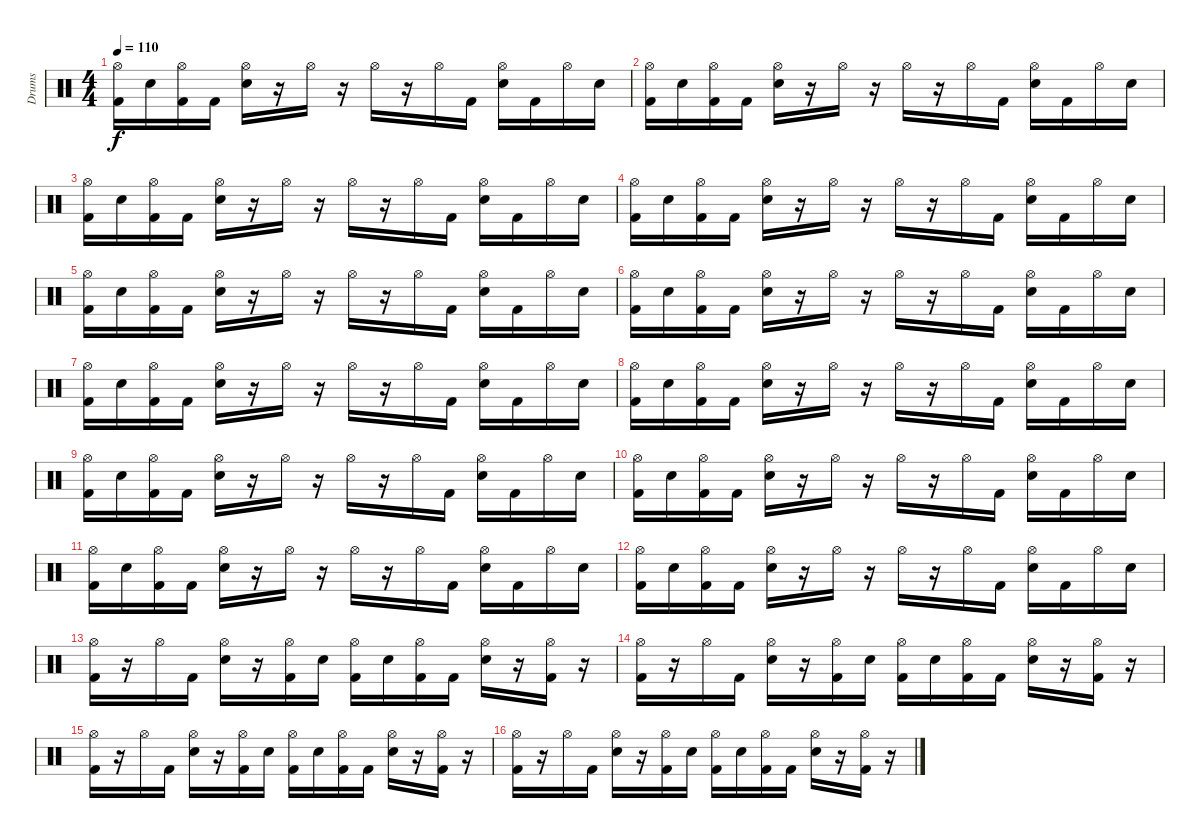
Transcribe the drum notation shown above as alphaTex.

\track ("Drums" "Drums") {instrument percussion}
\staff {score}
\articulation defaults
\ts (4 4)
\tempo 110
\clef neutral
\ks c
("Kick (hit) 2" "Hi-Hat (open)").16{dy f} "Electric Snare (hit)".16 ("Kick (hit) 2" "Hi-Hat (open)").16 "Kick (hit) 2".16 ("Electric Snare (hit)" "Hi-Hat (open)").16 r.16 "Hi-Hat (open)".16 r.16 "Hi-Hat (open)".16 r.16 "Hi-Hat (open)".16 "Kick (hit) 2".16 ("Electric Snare (hit)" "Hi-Hat (open)").16 "Kick (hit) 2".16 "Hi-Hat (open)".16 "Electric Snare (hit)".16 |
("Kick (hit) 2" "Hi-Hat (open)").16 "Electric Snare (hit)".16 ("Kick (hit) 2" "Hi-Hat (open)").16 "Kick (hit) 2".16 ("Electric Snare (hit)" "Hi-Hat (open)").16 r.16 "Hi-Hat (open)".16 r.16 "Hi-Hat (open)".16 r.16 "Hi-Hat (open)".16 "Kick (hit) 2".16 ("Electric Snare (hit)" "Hi-Hat (open)").16 "Kick (hit) 2".16 "Hi-Hat (open)".16 "Electric Snare (hit)".16 |
("Kick (hit) 2" "Hi-Hat (open)").16 "Electric Snare (hit)".16 ("Kick (hit) 2" "Hi-Hat (open)").16 "Kick (hit) 2".16 ("Electric Snare (hit)" "Hi-Hat (open)").16 r.16 "Hi-Hat (open)".16 r.16 "Hi-Hat (open)".16 r.16 "Hi-Hat (open)".16 "Kick (hit) 2".16 ("Electric Snare (hit)" "Hi-Hat (open)").16 "Kick (hit) 2".16 "Hi-Hat (open)".16 "Electric Snare (hit)".16 |
("Kick (hit) 2" "Hi-Hat (open)").16 "Electric Snare (hit)".16 ("Kick (hit) 2" "Hi-Hat (open)").16 "Kick (hit) 2".16 ("Electric Snare (hit)" "Hi-Hat (open)").16 r.16 "Hi-Hat (open)".16 r.16 "Hi-Hat (open)".16 r.16 "Hi-Hat (open)".16 "Kick (hit) 2".16 ("Electric Snare (hit)" "Hi-Hat (open)").16 "Kick (hit) 2".16 "Hi-Hat (open)".16 "Electric Snare (hit)".16 |
("Kick (hit) 2" "Hi-Hat (open)").16 "Electric Snare (hit)".16 ("Kick (hit) 2" "Hi-Hat (open)").16 "Kick (hit) 2".16 ("Electric Snare (hit)" "Hi-Hat (open)").16 r.16 "Hi-Hat (open)".16 r.16 "Hi-Hat (open)".16 r.16 "Hi-Hat (open)".16 "Kick (hit) 2".16 ("Electric Snare (hit)" "Hi-Hat (open)").16 "Kick (hit) 2".16 "Hi-Hat (open)".16 "Electric Snare (hit)".16 |
("Kick (hit) 2" "Hi-Hat (open)").16 "Electric Snare (hit)".16 ("Kick (hit) 2" "Hi-Hat (open)").16 "Kick (hit) 2".16 ("Electric Snare (hit)" "Hi-Hat (open)").16 r.16 "Hi-Hat (open)".16 r.16 "Hi-Hat (open)".16 r.16 "Hi-Hat (open)".16 "Kick (hit) 2".16 ("Electric Snare (hit)" "Hi-Hat (open)").16 "Kick (hit) 2".16 "Hi-Hat (open)".16 "Electric Snare (hit)".16 |
("Kick (hit) 2" "Hi-Hat (open)").16 "Electric Snare (hit)".16 ("Kick (hit) 2" "Hi-Hat (open)").16 "Kick (hit) 2".16 ("Electric Snare (hit)" "Hi-Hat (open)").16 r.16 "Hi-Hat (open)".16 r.16 "Hi-Hat (open)".16 r.16 "Hi-Hat (open)".16 "Kick (hit) 2".16 ("Electric Snare (hit)" "Hi-Hat (open)").16 "Kick (hit) 2".16 "Hi-Hat (open)".16 "Electric Snare (hit)".16 |
("Kick (hit) 2" "Hi-Hat (open)").16 "Electric Snare (hit)".16 ("Kick (hit) 2" "Hi-Hat (open)").16 "Kick (hit) 2".16 ("Electric Snare (hit)" "Hi-Hat (open)").16 r.16 "Hi-Hat (open)".16 r.16 "Hi-Hat (open)".16 r.16 "Hi-Hat (open)".16 "Kick (hit) 2".16 ("Electric Snare (hit)" "Hi-Hat (open)").16 "Kick (hit) 2".16 "Hi-Hat (open)".16 "Electric Snare (hit)".16 |
("Kick (hit) 2" "Hi-Hat (open)").16 "Electric Snare (hit)".16 ("Kick (hit) 2" "Hi-Hat (open)").16 "Kick (hit) 2".16 ("Electric Snare (hit)" "Hi-Hat (open)").16 r.16 "Hi-Hat (open)".16 r.16 "Hi-Hat (open)".16 r.16 "Hi-Hat (open)".16 "Kick (hit) 2".16 ("Electric Snare (hit)" "Hi-Hat (open)").16 "Kick (hit) 2".16 "Hi-Hat (open)".16 "Electric Snare (hit)".16 |
("Kick (hit) 2" "Hi-Hat (open)").16 "Electric Snare (hit)".16 ("Kick (hit) 2" "Hi-Hat (open)").16 "Kick (hit) 2".16 ("Electric Snare (hit)" "Hi-Hat (open)").16 r.16 "Hi-Hat (open)".16 r.16 "Hi-Hat (open)".16 r.16 "Hi-Hat (open)".16 "Kick (hit) 2".16 ("Electric Snare (hit)" "Hi-Hat (open)").16 "Kick (hit) 2".16 "Hi-Hat (open)".16 "Electric Snare (hit)".16 |
("Kick (hit) 2" "Hi-Hat (open)").16 "Electric Snare (hit)".16 ("Kick (hit) 2" "Hi-Hat (open)").16 "Kick (hit) 2".16 ("Electric Snare (hit)" "Hi-Hat (open)").16 r.16 "Hi-Hat (open)".16 r.16 "Hi-Hat (open)".16 r.16 "Hi-Hat (open)".16 "Kick (hit) 2".16 ("Electric Snare (hit)" "Hi-Hat (open)").16 "Kick (hit) 2".16 "Hi-Hat (open)".16 "Electric Snare (hit)".16 |
("Kick (hit) 2" "Hi-Hat (open)").16 "Electric Snare (hit)".16 ("Kick (hit) 2" "Hi-Hat (open)").16 "Kick (hit) 2".16 ("Electric Snare (hit)" "Hi-Hat (open)").16 r.16 "Hi-Hat (open)".16 r.16 "Hi-Hat (open)".16 r.16 "Hi-Hat (open)".16 "Kick (hit) 2".16 ("Electric Snare (hit)" "Hi-Hat (open)").16 "Kick (hit) 2".16 "Hi-Hat (open)".16 "Electric Snare (hit)".16 |
("Hi-Hat (open)" "Kick (hit) 2").16 r.16 "Hi-Hat (open)".16 "Kick (hit) 2".16 ("Hi-Hat (open)" "Electric Snare (hit)").16 r.16 ("Hi-Hat (open)" "Kick (hit) 2").16 "Electric Snare (hit)".16 ("Hi-Hat (open)" "Kick (hit) 2").16 "Electric Snare (hit)".16 ("Hi-Hat (open)" "Kick (hit) 2").16 "Kick (hit) 2".16 ("Hi-Hat (open)" "Electric Snare (hit)").16 r.16 ("Hi-Hat (open)" "Kick (hit) 2").16 r.16 |
("Kick (hit) 2" "Hi-Hat (open)").16 r.16 "Hi-Hat (open)".16 "Kick (hit) 2".16 ("Hi-Hat (open)" "Electric Snare (hit)").16 r.16 ("Hi-Hat (open)" "Kick (hit) 2").16 "Electric Snare (hit)".16 ("Hi-Hat (open)" "Kick (hit) 2").16 "Electric Snare (hit)".16 ("Hi-Hat (open)" "Kick (hit) 2").16 "Kick (hit) 2".16 ("Hi-Hat (open)" "Electric Snare (hit)").16 r.16 ("Hi-Hat (open)" "Kick (hit) 2").16 r.16 |
("Kick (hit) 2" "Hi-Hat (open)").16 r.16 "Hi-Hat (open)".16 "Kick (hit) 2".16 ("Hi-Hat (open)" "Electric Snare (hit)").16 r.16 ("Hi-Hat (open)" "Kick (hit) 2").16 "Electric Snare (hit)".16 ("Hi-Hat (open)" "Kick (hit) 2").16 "Electric Snare (hit)".16 ("Hi-Hat (open)" "Kick (hit) 2").16 "Kick (hit) 2".16 ("Hi-Hat (open)" "Electric Snare (hit)").16 r.16 ("Hi-Hat (open)" "Kick (hit) 2").16 r.16 |
("Kick (hit) 2" "Hi-Hat (open)").16 r.16 "Hi-Hat (open)".16 "Kick (hit) 2".16 ("Hi-Hat (open)" "Electric Snare (hit)").16 r.16 ("Hi-Hat (open)" "Kick (hit) 2").16 "Electric Snare (hit)".16 ("Hi-Hat (open)" "Kick (hit) 2").16 "Electric Snare (hit)".16 ("Hi-Hat (open)" "Kick (hit) 2").16 "Kick (hit) 2".16 ("Hi-Hat (open)" "Electric Snare (hit)").16 r.16 ("Hi-Hat (open)" "Kick (hit) 2").16 r.16
